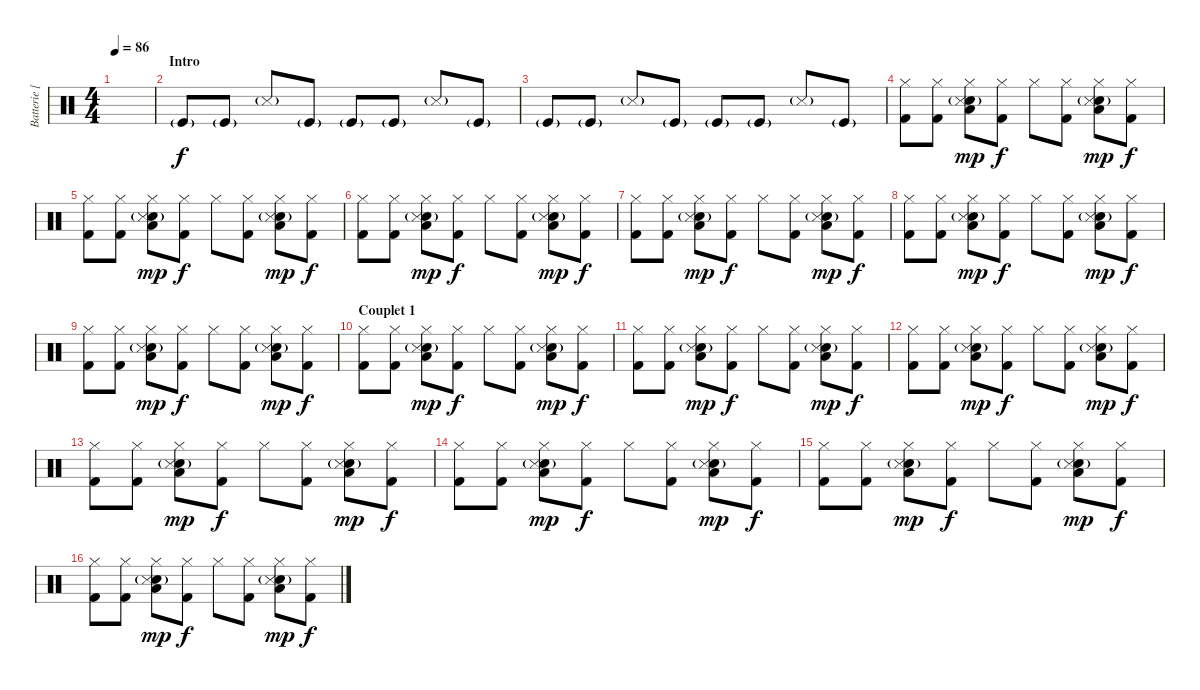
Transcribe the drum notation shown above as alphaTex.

\track ("Batterie [Dominic Howard]" "Batterie [") {instrument percussion}
\staff {score}
\articulation defaults
\ts (4 4)
\tempo 86
\clef neutral
\ks c
|
\section ("" "Intro")
"Kick (hit)"{g}.8 "Kick (hit)"{g}.8 "Metronome (hit)"{g}.8 "Kick (hit)"{g}.8 "Kick (hit)"{g}.8 "Kick (hit)"{g}.8 "Metronome (hit)"{g}.8 "Kick (hit)"{g}.8 |
"Kick (hit)"{g}.8 "Kick (hit)"{g}.8 "Metronome (hit)"{g}.8 "Kick (hit)"{g}.8 "Kick (hit)"{g}.8 "Kick (hit)"{g}.8 "Metronome (hit)"{g}.8 "Kick (hit)"{g}.8 |
("Hi-Hat (closed)" "Kick (hit) 2").8{dy f} ("Hi-Hat (closed)" "Kick (hit) 2").8 ("Hi-Hat (closed)" "Low Tom (hit)" "Electric Snare (hit)"{g} "Snare (side stick) 3").8{dy mp} ("Hi-Hat (closed)" "Kick (hit) 2").8{dy f} "Hi-Hat (closed)".8 ("Hi-Hat (closed)" "Kick (hit) 2").8 ("Hi-Hat (closed)" "Low Tom (hit)" "Electric Snare (hit)"{g} "Snare (side stick) 3").8{dy mp} ("Hi-Hat (closed)" "Kick (hit) 2").8{dy f} |
("Hi-Hat (closed)" "Kick (hit) 2").8 ("Hi-Hat (closed)" "Kick (hit) 2").8 ("Hi-Hat (closed)" "Low Tom (hit)" "Electric Snare (hit)"{g} "Snare (side stick) 3").8{dy mp} ("Hi-Hat (closed)" "Kick (hit) 2").8{dy f} "Hi-Hat (closed)".8 ("Hi-Hat (closed)" "Kick (hit) 2").8 ("Hi-Hat (closed)" "Low Tom (hit)" "Electric Snare (hit)"{g} "Snare (side stick) 3").8{dy mp} ("Hi-Hat (closed)" "Kick (hit) 2").8{dy f} |
("Hi-Hat (closed)" "Kick (hit) 2").8 ("Hi-Hat (closed)" "Kick (hit) 2").8 ("Hi-Hat (closed)" "Low Tom (hit)" "Electric Snare (hit)"{g} "Snare (side stick) 3").8{dy mp} ("Hi-Hat (closed)" "Kick (hit) 2").8{dy f} "Hi-Hat (closed)".8 ("Hi-Hat (closed)" "Kick (hit) 2").8 ("Hi-Hat (closed)" "Low Tom (hit)" "Electric Snare (hit)"{g} "Snare (side stick) 3").8{dy mp} ("Hi-Hat (closed)" "Kick (hit) 2").8{dy f} |
("Hi-Hat (closed)" "Kick (hit) 2").8 ("Hi-Hat (closed)" "Kick (hit) 2").8 ("Hi-Hat (closed)" "Low Tom (hit)" "Electric Snare (hit)"{g} "Snare (side stick) 3").8{dy mp} ("Hi-Hat (closed)" "Kick (hit) 2").8{dy f} "Hi-Hat (closed)".8 ("Hi-Hat (closed)" "Kick (hit) 2").8 ("Hi-Hat (closed)" "Low Tom (hit)" "Electric Snare (hit)"{g} "Snare (side stick) 3").8{dy mp} ("Hi-Hat (closed)" "Kick (hit) 2").8{dy f} |
("Hi-Hat (closed)" "Kick (hit) 2").8 ("Hi-Hat (closed)" "Kick (hit) 2").8 ("Hi-Hat (closed)" "Low Tom (hit)" "Electric Snare (hit)"{g} "Snare (side stick) 3").8{dy mp} ("Hi-Hat (closed)" "Kick (hit) 2").8{dy f} "Hi-Hat (closed)".8 ("Hi-Hat (closed)" "Kick (hit) 2").8 ("Hi-Hat (closed)" "Low Tom (hit)" "Electric Snare (hit)"{g} "Snare (side stick) 3").8{dy mp} ("Hi-Hat (closed)" "Kick (hit) 2").8{dy f} |
("Hi-Hat (closed)" "Kick (hit) 2").8 ("Hi-Hat (closed)" "Kick (hit) 2").8 ("Hi-Hat (closed)" "Low Tom (hit)" "Electric Snare (hit)"{g} "Snare (side stick) 3").8{dy mp} ("Hi-Hat (closed)" "Kick (hit) 2").8{dy f} "Hi-Hat (closed)".8 ("Hi-Hat (closed)" "Kick (hit) 2").8 ("Hi-Hat (closed)" "Low Tom (hit)" "Electric Snare (hit)"{g} "Snare (side stick) 3").8{dy mp} ("Hi-Hat (closed)" "Kick (hit) 2").8{dy f} |
\section ("" "Couplet 1")
("Hi-Hat (closed)" "Kick (hit) 2").8 ("Hi-Hat (closed)" "Kick (hit) 2").8 ("Hi-Hat (closed)" "Low Tom (hit)" "Electric Snare (hit)"{g} "Snare (side stick) 3").8{dy mp} ("Hi-Hat (closed)" "Kick (hit) 2").8{dy f} "Hi-Hat (closed)".8 ("Hi-Hat (closed)" "Kick (hit) 2").8 ("Hi-Hat (closed)" "Low Tom (hit)" "Electric Snare (hit)"{g} "Snare (side stick) 3").8{dy mp} ("Hi-Hat (closed)" "Kick (hit) 2").8{dy f} |
("Hi-Hat (closed)" "Kick (hit) 2").8 ("Hi-Hat (closed)" "Kick (hit) 2").8 ("Hi-Hat (closed)" "Low Tom (hit)" "Electric Snare (hit)"{g} "Snare (side stick) 3").8{dy mp} ("Hi-Hat (closed)" "Kick (hit) 2").8{dy f} "Hi-Hat (closed)".8 ("Hi-Hat (closed)" "Kick (hit) 2").8 ("Hi-Hat (closed)" "Low Tom (hit)" "Electric Snare (hit)"{g} "Snare (side stick) 3").8{dy mp} ("Hi-Hat (closed)" "Kick (hit) 2").8{dy f} |
("Hi-Hat (closed)" "Kick (hit) 2").8 ("Hi-Hat (closed)" "Kick (hit) 2").8 ("Hi-Hat (closed)" "Low Tom (hit)" "Electric Snare (hit)"{g} "Snare (side stick) 3").8{dy mp} ("Hi-Hat (closed)" "Kick (hit) 2").8{dy f} "Hi-Hat (closed)".8 ("Hi-Hat (closed)" "Kick (hit) 2").8 ("Hi-Hat (closed)" "Low Tom (hit)" "Electric Snare (hit)"{g} "Snare (side stick) 3").8{dy mp} ("Hi-Hat (closed)" "Kick (hit) 2").8{dy f} |
("Hi-Hat (closed)" "Kick (hit) 2").8 ("Hi-Hat (closed)" "Kick (hit) 2").8 ("Hi-Hat (closed)" "Low Tom (hit)" "Electric Snare (hit)"{g} "Snare (side stick) 3").8{dy mp} ("Hi-Hat (closed)" "Kick (hit) 2").8{dy f} "Hi-Hat (closed)".8 ("Hi-Hat (closed)" "Kick (hit) 2").8 ("Hi-Hat (closed)" "Low Tom (hit)" "Electric Snare (hit)"{g} "Snare (side stick) 3").8{dy mp} ("Hi-Hat (closed)" "Kick (hit) 2").8{dy f} |
("Hi-Hat (closed)" "Kick (hit) 2").8 ("Hi-Hat (closed)" "Kick (hit) 2").8 ("Hi-Hat (closed)" "Low Tom (hit)" "Electric Snare (hit)"{g} "Snare (side stick) 3").8{dy mp} ("Hi-Hat (closed)" "Kick (hit) 2").8{dy f} "Hi-Hat (closed)".8 ("Hi-Hat (closed)" "Kick (hit) 2").8 ("Hi-Hat (closed)" "Low Tom (hit)" "Electric Snare (hit)"{g} "Snare (side stick) 3").8{dy mp} ("Hi-Hat (closed)" "Kick (hit) 2").8{dy f} |
("Hi-Hat (closed)" "Kick (hit) 2").8 ("Hi-Hat (closed)" "Kick (hit) 2").8 ("Hi-Hat (closed)" "Low Tom (hit)" "Electric Snare (hit)"{g} "Snare (side stick) 3").8{dy mp} ("Hi-Hat (closed)" "Kick (hit) 2").8{dy f} "Hi-Hat (closed)".8 ("Hi-Hat (closed)" "Kick (hit) 2").8 ("Hi-Hat (closed)" "Low Tom (hit)" "Electric Snare (hit)"{g} "Snare (side stick) 3").8{dy mp} ("Hi-Hat (closed)" "Kick (hit) 2").8{dy f} |
("Hi-Hat (closed)" "Kick (hit) 2").8 ("Hi-Hat (closed)" "Kick (hit) 2").8 ("Hi-Hat (closed)" "Low Tom (hit)" "Electric Snare (hit)"{g} "Snare (side stick) 3").8{dy mp} ("Hi-Hat (closed)" "Kick (hit) 2").8{dy f} "Hi-Hat (closed)".8 ("Hi-Hat (closed)" "Kick (hit) 2").8 ("Hi-Hat (closed)" "Low Tom (hit)" "Electric Snare (hit)"{g} "Snare (side stick) 3").8{dy mp} ("Hi-Hat (closed)" "Kick (hit) 2").8{dy f}
